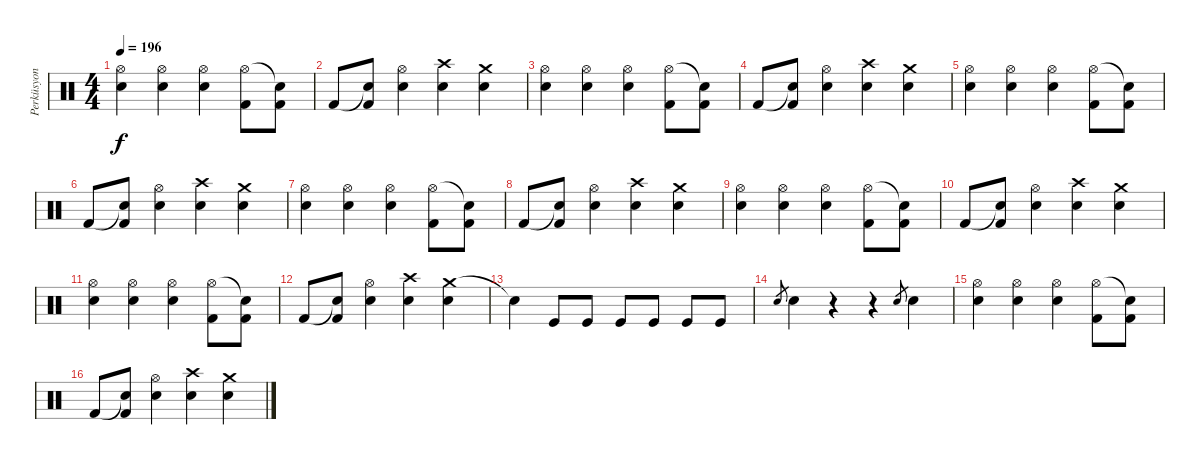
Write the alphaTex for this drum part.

\track ("Perküsyon" "Perküsyon") {instrument percussion}
\staff {score}
\articulation defaults
\ts (4 4)
\tempo 196
\clef neutral
\ks c
("Electric Snare (hit)" "Hi-Hat (open)").4{dy f} ("Electric Snare (hit)" "Hi-Hat (open)").4 ("Electric Snare (hit)" "Hi-Hat (open)").4 ("Hi-Hat (open)" "Kick (hit) 2").8 ("Snare (hit)"{t} "Kick (hit) 2").8 |
"Kick (hit) 2".8 ("Snare (hit)"{t} "Kick (hit) 2").8 ("Electric Snare (hit)" "Hi-Hat (open)").4 ("Snare (hit) 2" "Crash high (hit)").4 ("Crash medium (hit)" "Snare (hit) 2").4 |
("Electric Snare (hit)" "Hi-Hat (open)").4 ("Electric Snare (hit)" "Hi-Hat (open)").4 ("Electric Snare (hit)" "Hi-Hat (open)").4 ("Hi-Hat (open)" "Kick (hit) 2").8 ("Snare (hit)"{t} "Kick (hit) 2").8 |
"Kick (hit) 2".8 ("Snare (hit)"{t} "Kick (hit) 2").8 ("Electric Snare (hit)" "Hi-Hat (open)").4 ("Snare (hit) 2" "Crash high (hit)").4 ("Crash medium (hit)" "Snare (hit) 2").4 |
("Electric Snare (hit)" "Hi-Hat (open)").4 ("Electric Snare (hit)" "Hi-Hat (open)").4 ("Electric Snare (hit)" "Hi-Hat (open)").4 ("Hi-Hat (open)" "Kick (hit) 2").8 ("Snare (hit)"{t} "Kick (hit) 2").8 |
"Kick (hit) 2".8 ("Snare (hit)"{t} "Kick (hit) 2").8 ("Electric Snare (hit)" "Hi-Hat (open)").4 ("Snare (hit) 2" "Crash high (hit)").4 ("Crash medium (hit)" "Snare (hit) 2").4 |
("Electric Snare (hit)" "Hi-Hat (open)").4 ("Electric Snare (hit)" "Hi-Hat (open)").4 ("Electric Snare (hit)" "Hi-Hat (open)").4 ("Hi-Hat (open)" "Kick (hit) 2").8 ("Snare (hit)"{t} "Kick (hit) 2").8 |
"Kick (hit) 2".8 ("Snare (hit)"{t} "Kick (hit) 2").8 ("Electric Snare (hit)" "Hi-Hat (open)").4 ("Snare (hit) 2" "Crash high (hit)").4 ("Crash medium (hit)" "Snare (hit) 2").4 |
("Electric Snare (hit)" "Hi-Hat (open)").4 ("Electric Snare (hit)" "Hi-Hat (open)").4 ("Electric Snare (hit)" "Hi-Hat (open)").4 ("Hi-Hat (open)" "Kick (hit) 2").8 ("Snare (hit)"{t} "Kick (hit) 2").8 |
"Kick (hit) 2".8 ("Snare (hit)"{t} "Kick (hit) 2").8 ("Electric Snare (hit)" "Hi-Hat (open)").4 ("Snare (hit) 2" "Crash high (hit)").4 ("Crash medium (hit)" "Snare (hit) 2").4 |
("Electric Snare (hit)" "Hi-Hat (open)").4 ("Electric Snare (hit)" "Hi-Hat (open)").4 ("Electric Snare (hit)" "Hi-Hat (open)").4 ("Hi-Hat (open)" "Kick (hit) 2").8 ("Snare (hit)"{t} "Kick (hit) 2").8 |
"Kick (hit) 2".8 ("Snare (hit)"{t} "Kick (hit) 2").8 ("Electric Snare (hit)" "Hi-Hat (open)").4 ("Snare (hit) 2" "Crash high (hit)").4 ("Crash medium (hit)" "Snare (hit) 2").4 |
"Snare (hit)"{t}.4 "Kick (hit)".8 "Kick (hit)".8 "Kick (hit)".8 "Kick (hit)".8 "Kick (hit)".8 "Kick (hit)".8 |
"Electric Snare (hit)".8{gr} "Electric Snare (hit)".4 r.4 r.4 "Electric Snare (hit)".8{gr} "Electric Snare (hit)".4 |
("Electric Snare (hit)" "Hi-Hat (open)").4 ("Electric Snare (hit)" "Hi-Hat (open)").4 ("Electric Snare (hit)" "Hi-Hat (open)").4 ("Hi-Hat (open)" "Kick (hit) 2").8 ("Snare (hit)"{t} "Kick (hit) 2").8 |
"Kick (hit) 2".8 ("Snare (hit)"{t} "Kick (hit) 2").8 ("Electric Snare (hit)" "Hi-Hat (open)").4 ("Snare (hit) 2" "Crash high (hit)").4 ("Crash medium (hit)" "Snare (hit) 2").4
